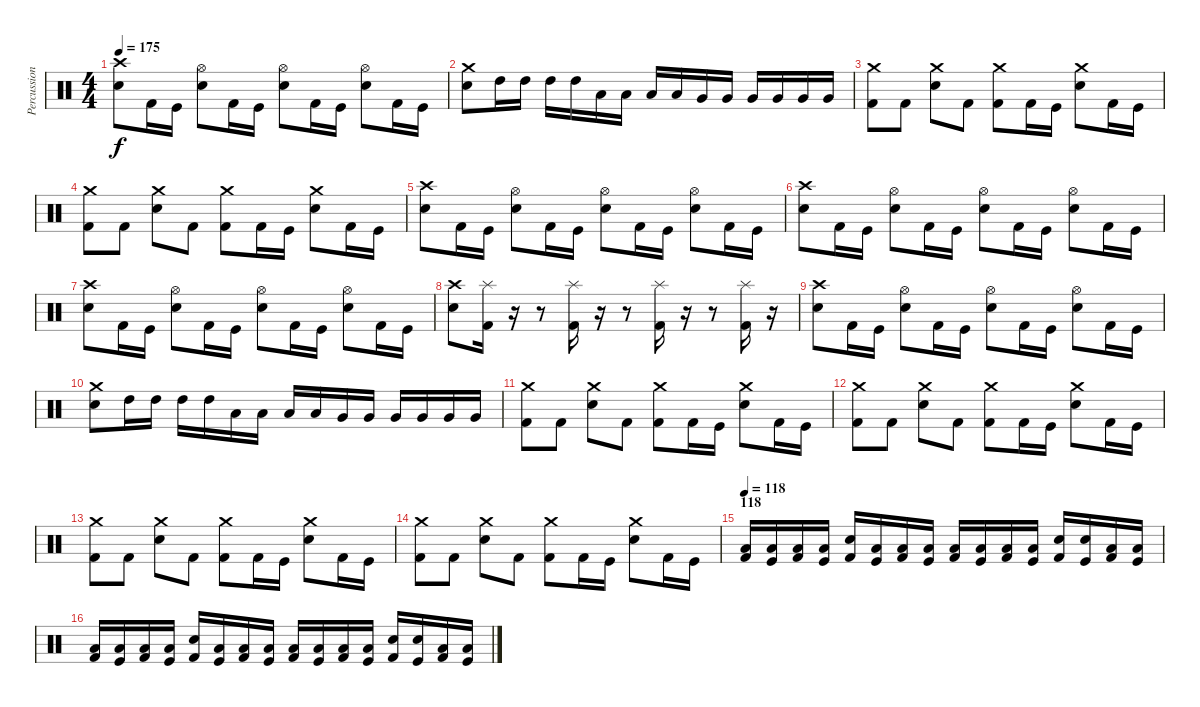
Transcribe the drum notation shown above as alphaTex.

\track ("Percussion" "Percussion") {instrument percussion}
\staff {score}
\articulation defaults
\ts (4 4)
\tempo 175
\clef neutral
\ks c
("Snare (hit) 2" "Crash high (hit)").8{dy f} "Kick (hit) 2".16 "Kick (hit)".16 ("Snare (hit) 2" "Hi-Hat (open)").8 "Kick (hit) 2".16 "Kick (hit)".16 ("Snare (hit) 2" "Hi-Hat (open)").8 "Kick (hit) 2".16 "Kick (hit)".16 ("Snare (hit) 2" "Hi-Hat (open)").8 "Kick (hit) 2".16 "Kick (hit)".16 |
("Snare (hit) 2" "Crash medium (hit)").8 "High Tom (hit)".16 "High Tom (hit)".16 "High Tom (hit)".16 "High Tom (hit)".16 "Low Tom (hit)".16 "Low Tom (hit)".16 "Low Tom (hit)".16 "Low Tom (hit)".16 "Very Low Tom (hit)".16 "Very Low Tom (hit)".16 "Very Low Tom (hit)".16 "Very Low Tom (hit)".16 "Very Low Tom (hit)".16 "Very Low Tom (hit)".16 |
("Kick (hit) 2" "Crash medium (hit)").8 "Kick (hit) 2".8 ("Snare (hit) 2" "Crash medium (hit)").8 "Kick (hit) 2".8 ("Kick (hit) 2" "Crash medium (hit)").8 "Kick (hit) 2".16 "Kick (hit)".16 ("Snare (hit) 2" "Crash medium (hit)").8 "Kick (hit) 2".16 "Kick (hit)".16 |
("Kick (hit) 2" "Crash medium (hit)").8 "Kick (hit) 2".8 ("Snare (hit) 2" "Crash medium (hit)").8 "Kick (hit) 2".8 ("Kick (hit) 2" "Crash medium (hit)").8 "Kick (hit) 2".16 "Kick (hit)".16 ("Snare (hit) 2" "Crash medium (hit)").8 "Kick (hit) 2".16 "Kick (hit)".16 |
("Snare (hit) 2" "Crash high (hit)").8 "Kick (hit) 2".16 "Kick (hit)".16 ("Snare (hit) 2" "Hi-Hat (open)").8 "Kick (hit) 2".16 "Kick (hit)".16 ("Snare (hit) 2" "Hi-Hat (open)").8 "Kick (hit) 2".16 "Kick (hit)".16 ("Snare (hit) 2" "Hi-Hat (open)").8 "Kick (hit) 2".16 "Kick (hit)".16 |
("Snare (hit) 2" "Crash high (hit)").8 "Kick (hit) 2".16 "Kick (hit)".16 ("Snare (hit) 2" "Hi-Hat (open)").8 "Kick (hit) 2".16 "Kick (hit)".16 ("Snare (hit) 2" "Hi-Hat (open)").8 "Kick (hit) 2".16 "Kick (hit)".16 ("Snare (hit) 2" "Hi-Hat (open)").8 "Kick (hit) 2".16 "Kick (hit)".16 |
("Snare (hit) 2" "Crash high (hit)").8 "Kick (hit) 2".16 "Kick (hit)".16 ("Snare (hit) 2" "Hi-Hat (open)").8 "Kick (hit) 2".16 "Kick (hit)".16 ("Snare (hit) 2" "Hi-Hat (open)").8 "Kick (hit) 2".16 "Kick (hit)".16 ("Snare (hit) 2" "Hi-Hat (open)").8 "Kick (hit) 2".16 "Kick (hit)".16 |
("Snare (hit) 2" "Crash high (hit)").8 ("Kick (hit) 2" "Splash (hit)").16 r.16 r.8 ("Kick (hit) 2" "Splash (hit)").16 r.16 r.8 ("Kick (hit) 2" "Splash (hit)").16 r.16 r.8 ("Kick (hit) 2" "Splash (hit)").16 r.16 |
("Snare (hit) 2" "Crash high (hit)").8 "Kick (hit) 2".16 "Kick (hit)".16 ("Snare (hit) 2" "Hi-Hat (open)").8 "Kick (hit) 2".16 "Kick (hit)".16 ("Snare (hit) 2" "Hi-Hat (open)").8 "Kick (hit) 2".16 "Kick (hit)".16 ("Snare (hit) 2" "Hi-Hat (open)").8 "Kick (hit) 2".16 "Kick (hit)".16 |
("Snare (hit) 2" "Crash medium (hit)").8 "High Tom (hit)".16 "High Tom (hit)".16 "High Tom (hit)".16 "High Tom (hit)".16 "Low Tom (hit)".16 "Low Tom (hit)".16 "Low Tom (hit)".16 "Low Tom (hit)".16 "Very Low Tom (hit)".16 "Very Low Tom (hit)".16 "Very Low Tom (hit)".16 "Very Low Tom (hit)".16 "Very Low Tom (hit)".16 "Very Low Tom (hit)".16 |
("Kick (hit) 2" "Crash medium (hit)").8 "Kick (hit) 2".8 ("Snare (hit) 2" "Crash medium (hit)").8 "Kick (hit) 2".8 ("Kick (hit) 2" "Crash medium (hit)").8 "Kick (hit) 2".16 "Kick (hit)".16 ("Snare (hit) 2" "Crash medium (hit)").8 "Kick (hit) 2".16 "Kick (hit)".16 |
("Kick (hit) 2" "Crash medium (hit)").8 "Kick (hit) 2".8 ("Snare (hit) 2" "Crash medium (hit)").8 "Kick (hit) 2".8 ("Kick (hit) 2" "Crash medium (hit)").8 "Kick (hit) 2".16 "Kick (hit)".16 ("Snare (hit) 2" "Crash medium (hit)").8 "Kick (hit) 2".16 "Kick (hit)".16 |
("Kick (hit) 2" "Crash medium (hit)").8 "Kick (hit) 2".8 ("Snare (hit) 2" "Crash medium (hit)").8 "Kick (hit) 2".8 ("Kick (hit) 2" "Crash medium (hit)").8 "Kick (hit) 2".16 "Kick (hit)".16 ("Snare (hit) 2" "Crash medium (hit)").8 "Kick (hit) 2".16 "Kick (hit)".16 |
("Kick (hit) 2" "Crash medium (hit)").8 "Kick (hit) 2".8 ("Snare (hit) 2" "Crash medium (hit)").8 "Kick (hit) 2".8 ("Kick (hit) 2" "Crash medium (hit)").8 "Kick (hit) 2".16 "Kick (hit)".16 ("Snare (hit) 2" "Crash medium (hit)").8 "Kick (hit) 2".16 "Kick (hit)".16 |
\section ("" "118")
\tempo 118
("Low Tom (hit)" "Kick (hit) 2").16 ("Low Tom (hit)" "Kick (hit)").16 ("Low Tom (hit)" "Kick (hit) 2").16 ("Low Tom (hit)" "Kick (hit)").16 ("Snare (hit) 2" "Kick (hit) 2").16 ("Low Tom (hit)" "Kick (hit)").16 ("Low Tom (hit)" "Kick (hit) 2").16 ("Low Tom (hit)" "Kick (hit)").16 ("Low Tom (hit)" "Kick (hit) 2").16 ("Low Tom (hit)" "Kick (hit)").16 ("Low Tom (hit)" "Kick (hit) 2").16 ("Low Tom (hit)" "Kick (hit)").16 ("Snare (hit) 2" "Kick (hit) 2").16 ("Snare (hit) 2" "Kick (hit)").16 ("Low Tom (hit)" "Kick (hit) 2").16 ("Low Tom (hit)" "Kick (hit)").16 |
("Low Tom (hit)" "Kick (hit) 2").16 ("Low Tom (hit)" "Kick (hit)").16 ("Low Tom (hit)" "Kick (hit) 2").16 ("Low Tom (hit)" "Kick (hit)").16 ("Snare (hit) 2" "Kick (hit) 2").16 ("Low Tom (hit)" "Kick (hit)").16 ("Low Tom (hit)" "Kick (hit) 2").16 ("Low Tom (hit)" "Kick (hit)").16 ("Low Tom (hit)" "Kick (hit) 2").16 ("Low Tom (hit)" "Kick (hit)").16 ("Low Tom (hit)" "Kick (hit) 2").16 ("Low Tom (hit)" "Kick (hit)").16 ("Snare (hit) 2" "Kick (hit) 2").16 ("Snare (hit) 2" "Kick (hit)").16 ("Low Tom (hit)" "Kick (hit) 2").16 ("Low Tom (hit)" "Kick (hit)").16
